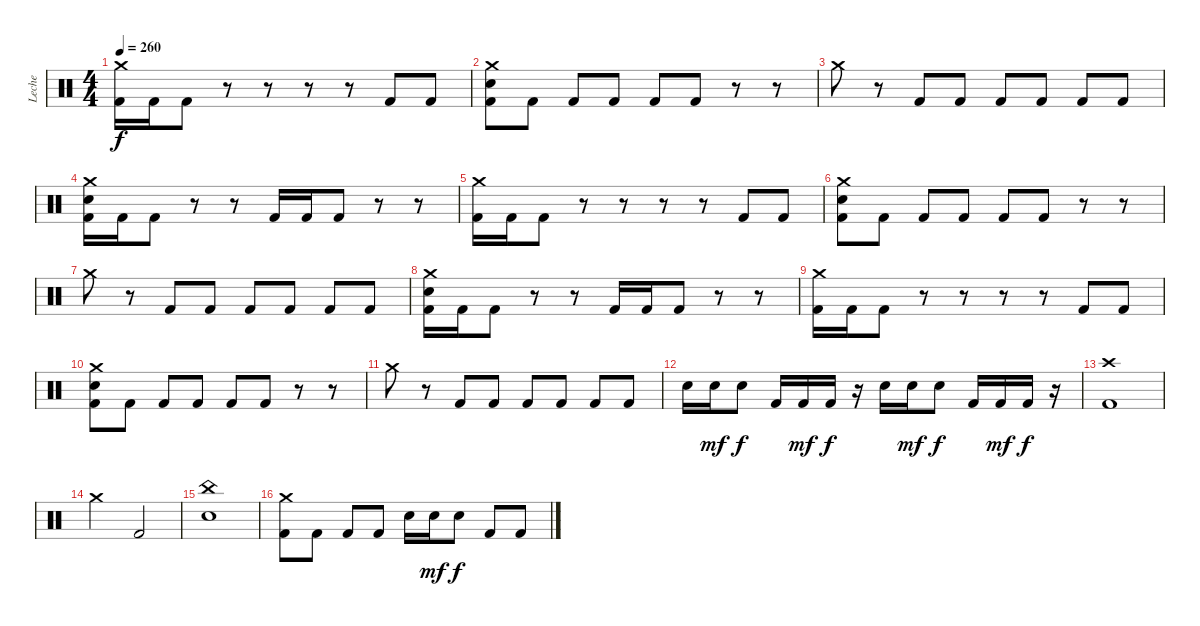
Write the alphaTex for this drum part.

\track ("Leche" "Leche") {instrument percussion}
\staff {score}
\articulation defaults
\ts (4 4)
\tempo 260
\clef neutral
\ks c
("Crash medium (hit)" "Kick (hit) 2").16{dy f} "Kick (hit) 2".16 "Kick (hit) 2".8 r.8 r.8 r.8 r.8 "Kick (hit) 2".8 "Kick (hit) 2".8 |
("Crash medium (hit)" "Electric Snare (hit)" "Kick (hit) 2").8 "Kick (hit) 2".8 "Kick (hit) 2".8 "Kick (hit) 2".8 "Kick (hit) 2".8 "Kick (hit) 2".8 r.8 r.8 |
"Crash medium (hit)".8 r.8 "Kick (hit) 2".8 "Kick (hit) 2".8 "Kick (hit) 2".8 "Kick (hit) 2".8 "Kick (hit) 2".8 "Kick (hit) 2".8 |
("Crash medium (hit)" "Electric Snare (hit)" "Kick (hit) 2").16 "Kick (hit) 2".16 "Kick (hit) 2".8 r.8 r.8 "Kick (hit) 2".16 "Kick (hit) 2".16 "Kick (hit) 2".8 r.8 r.8 |
("Crash medium (hit)" "Kick (hit) 2").16 "Kick (hit) 2".16 "Kick (hit) 2".8 r.8 r.8 r.8 r.8 "Kick (hit) 2".8 "Kick (hit) 2".8 |
("Crash medium (hit)" "Electric Snare (hit)" "Kick (hit) 2").8 "Kick (hit) 2".8 "Kick (hit) 2".8 "Kick (hit) 2".8 "Kick (hit) 2".8 "Kick (hit) 2".8 r.8 r.8 |
"Crash medium (hit)".8 r.8 "Kick (hit) 2".8 "Kick (hit) 2".8 "Kick (hit) 2".8 "Kick (hit) 2".8 "Kick (hit) 2".8 "Kick (hit) 2".8 |
("Crash medium (hit)" "Electric Snare (hit)" "Kick (hit) 2").16 "Kick (hit) 2".16 "Kick (hit) 2".8 r.8 r.8 "Kick (hit) 2".16 "Kick (hit) 2".16 "Kick (hit) 2".8 r.8 r.8 |
("Crash medium (hit)" "Kick (hit) 2").16 "Kick (hit) 2".16 "Kick (hit) 2".8 r.8 r.8 r.8 r.8 "Kick (hit) 2".8 "Kick (hit) 2".8 |
("Crash medium (hit)" "Electric Snare (hit)" "Kick (hit) 2").8 "Kick (hit) 2".8 "Kick (hit) 2".8 "Kick (hit) 2".8 "Kick (hit) 2".8 "Kick (hit) 2".8 r.8 r.8 |
"Crash medium (hit)".8 r.8 "Kick (hit) 2".8 "Kick (hit) 2".8 "Kick (hit) 2".8 "Kick (hit) 2".8 "Kick (hit) 2".8 "Kick (hit) 2".8 |
"Electric Snare (hit)".16 "Electric Snare (hit)".16{dy mf} "Electric Snare (hit)".8{dy f} "Kick (hit) 2".16 "Kick (hit) 2".16{dy mf} "Kick (hit) 2".16{dy f} r.16 "Electric Snare (hit)".16 "Electric Snare (hit)".16{dy mf} "Electric Snare (hit)".8{dy f} "Kick (hit) 2".16 "Kick (hit) 2".16{dy mf} "Kick (hit) 2".16{dy f} r.16 |
("Crash high (hit)" "Kick (hit) 2").1 |
"Crash medium (hit)".2 "Kick (hit) 2".2 |
("China (hit)" "Electric Snare (hit)").1 |
("Crash medium (hit)" "Kick (hit) 2").8 "Kick (hit) 2".8 "Kick (hit) 2".8 "Kick (hit) 2".8 "Electric Snare (hit)".16 "Electric Snare (hit)".16{dy mf} "Electric Snare (hit)".8{dy f} "Kick (hit) 2".8 "Kick (hit) 2".8
